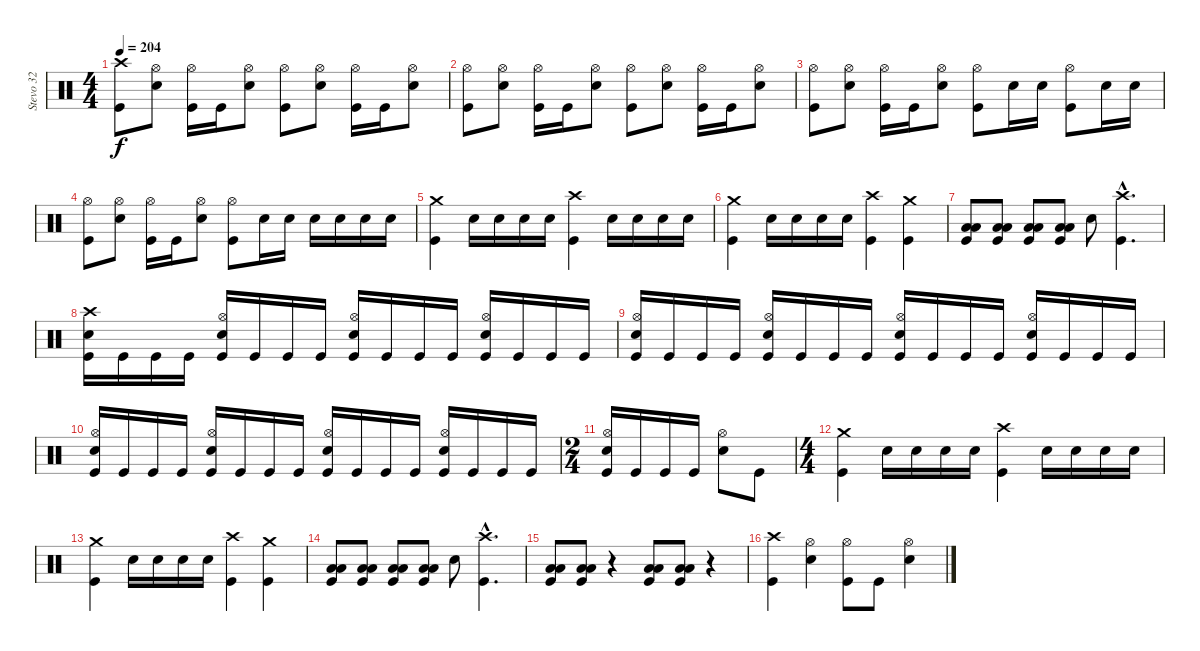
\track ("Stevo 32" "Stevo 32") {instrument percussion}
\staff {score}
\articulation defaults
\ts (4 4)
\tempo 204
\clef neutral
\ks c
("Crash high (hit)" "Kick (hit)").8{dy f} ("Hi-Hat (open)" "Electric Snare (hit)").8 ("Hi-Hat (open)" "Kick (hit)").16 "Kick (hit)".16 ("Hi-Hat (open)" "Electric Snare (hit)").8 ("Hi-Hat (open)" "Kick (hit)").8 ("Hi-Hat (open)" "Electric Snare (hit)").8 ("Hi-Hat (open)" "Kick (hit)").16 "Kick (hit)".16 ("Hi-Hat (open)" "Electric Snare (hit)").8 |
("Hi-Hat (open)" "Kick (hit)").8 ("Hi-Hat (open)" "Electric Snare (hit)").8 ("Hi-Hat (open)" "Kick (hit)").16 "Kick (hit)".16 ("Hi-Hat (open)" "Electric Snare (hit)").8 ("Hi-Hat (open)" "Kick (hit)").8 ("Hi-Hat (open)" "Electric Snare (hit)").8 ("Hi-Hat (open)" "Kick (hit)").16 "Kick (hit)".16 ("Hi-Hat (open)" "Electric Snare (hit)").8 |
("Hi-Hat (open)" "Kick (hit)").8 ("Hi-Hat (open)" "Electric Snare (hit)").8 ("Hi-Hat (open)" "Kick (hit)").16 "Kick (hit)".16 ("Hi-Hat (open)" "Electric Snare (hit)").8 ("Hi-Hat (open)" "Kick (hit)").8 "Electric Snare (hit)".16 "Electric Snare (hit)".16 ("Hi-Hat (open)" "Kick (hit)").8 "Electric Snare (hit)".16 "Electric Snare (hit)".16 |
("Hi-Hat (open)" "Kick (hit)").8 ("Hi-Hat (open)" "Electric Snare (hit)").8 ("Hi-Hat (open)" "Kick (hit)").16 "Kick (hit)".16 ("Hi-Hat (open)" "Electric Snare (hit)").8 ("Hi-Hat (open)" "Kick (hit)").8 "Electric Snare (hit)".16 "Electric Snare (hit)".16 "Electric Snare (hit)".16 "Electric Snare (hit)".16 "Electric Snare (hit)".16 "Electric Snare (hit)".16 |
("Crash medium (hit)" "Kick (hit)").4 "Electric Snare (hit)".16 "Electric Snare (hit)".16 "Electric Snare (hit)".16 "Electric Snare (hit)".16 ("Crash high (hit)" "Kick (hit)").4 "Electric Snare (hit)".16 "Electric Snare (hit)".16 "Electric Snare (hit)".16 "Electric Snare (hit)".16 |
("Crash medium (hit)" "Kick (hit)").4 "Electric Snare (hit)".16 "Electric Snare (hit)".16 "Electric Snare (hit)".16 "Electric Snare (hit)".16 ("Crash high (hit)" "Kick (hit)").4 ("Crash medium (hit)" "Kick (hit)").4 |
("Low Tom (hit)" "Low Floor Tom (hit)" "Kick (hit)").8 ("Low Tom (hit)" "Low Floor Tom (hit)" "Kick (hit)").8 ("Low Tom (hit)" "Low Floor Tom (hit)" "Kick (hit)").8 ("Low Tom (hit)" "Low Floor Tom (hit)" "Kick (hit)").8 "Electric Snare (hit)".8 ("Crash high (hit)"{hac} "Kick (hit)"{hac}).4{d} |
("Crash high (hit)" "Electric Snare (hit)" "Kick (hit)").16 "Kick (hit)".16 "Kick (hit)".16 "Kick (hit)".16 ("Hi-Hat (open)" "Electric Snare (hit)" "Kick (hit)").16 "Kick (hit)".16 "Kick (hit)".16 "Kick (hit)".16 ("Hi-Hat (open)" "Electric Snare (hit)" "Kick (hit)").16 "Kick (hit)".16 "Kick (hit)".16 "Kick (hit)".16 ("Hi-Hat (open)" "Electric Snare (hit)" "Kick (hit)").16 "Kick (hit)".16 "Kick (hit)".16 "Kick (hit)".16 |
("Hi-Hat (open)" "Electric Snare (hit)" "Kick (hit)").16 "Kick (hit)".16 "Kick (hit)".16 "Kick (hit)".16 ("Hi-Hat (open)" "Electric Snare (hit)" "Kick (hit)").16 "Kick (hit)".16 "Kick (hit)".16 "Kick (hit)".16 ("Hi-Hat (open)" "Electric Snare (hit)" "Kick (hit)").16 "Kick (hit)".16 "Kick (hit)".16 "Kick (hit)".16 ("Hi-Hat (open)" "Electric Snare (hit)" "Kick (hit)").16 "Kick (hit)".16 "Kick (hit)".16 "Kick (hit)".16 |
("Hi-Hat (open)" "Electric Snare (hit)" "Kick (hit)").16 "Kick (hit)".16 "Kick (hit)".16 "Kick (hit)".16 ("Hi-Hat (open)" "Electric Snare (hit)" "Kick (hit)").16 "Kick (hit)".16 "Kick (hit)".16 "Kick (hit)".16 ("Hi-Hat (open)" "Electric Snare (hit)" "Kick (hit)").16 "Kick (hit)".16 "Kick (hit)".16 "Kick (hit)".16 ("Hi-Hat (open)" "Electric Snare (hit)" "Kick (hit)").16 "Kick (hit)".16 "Kick (hit)".16 "Kick (hit)".16 |
\ts (2 4)
("Hi-Hat (open)" "Electric Snare (hit)" "Kick (hit)").16 "Kick (hit)".16 "Kick (hit)".16 "Kick (hit)".16 ("Hi-Hat (open)" "Electric Snare (hit)").8 "Kick (hit)".8 |
\ts (4 4)
("Crash medium (hit)" "Kick (hit)").4 "Electric Snare (hit)".16 "Electric Snare (hit)".16 "Electric Snare (hit)".16 "Electric Snare (hit)".16 ("Crash high (hit)" "Kick (hit)").4 "Electric Snare (hit)".16 "Electric Snare (hit)".16 "Electric Snare (hit)".16 "Electric Snare (hit)".16 |
("Crash medium (hit)" "Kick (hit)").4 "Electric Snare (hit)".16 "Electric Snare (hit)".16 "Electric Snare (hit)".16 "Electric Snare (hit)".16 ("Crash high (hit)" "Kick (hit)").4 ("Crash medium (hit)" "Kick (hit)").4 |
("Low Tom (hit)" "Low Floor Tom (hit)" "Kick (hit)").8 ("Low Tom (hit)" "Low Floor Tom (hit)" "Kick (hit)").8 ("Low Tom (hit)" "Low Floor Tom (hit)" "Kick (hit)").8 ("Low Tom (hit)" "Low Floor Tom (hit)" "Kick (hit)").8 "Electric Snare (hit)".8 ("Crash high (hit)"{hac} "Kick (hit)"{hac}).4{d} |
("Low Tom (hit)" "Low Floor Tom (hit)" "Kick (hit)").8 ("Low Tom (hit)" "Low Floor Tom (hit)" "Kick (hit)").8 r.4 ("Low Tom (hit)" "Low Floor Tom (hit)" "Kick (hit)").8 ("Low Tom (hit)" "Low Floor Tom (hit)" "Kick (hit)").8 r.4 |
("Crash high (hit)" "Kick (hit)").4 ("Hi-Hat (open)" "Electric Snare (hit)").4 ("Hi-Hat (open)" "Kick (hit)").8 "Kick (hit)".8 ("Hi-Hat (open)" "Electric Snare (hit)").4
